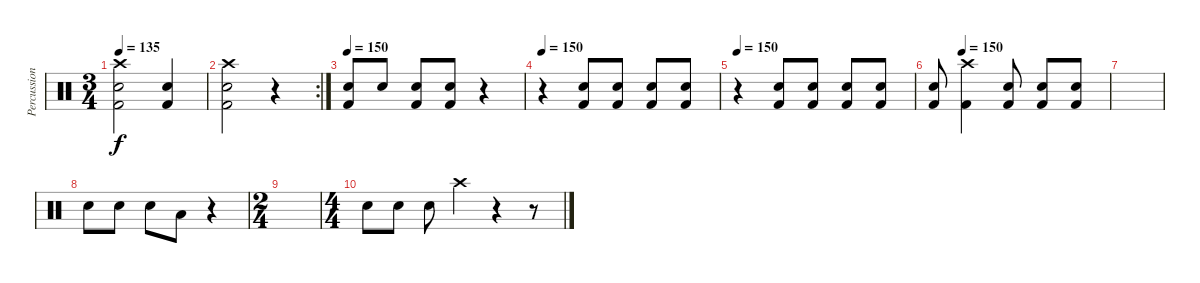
\track ("Percussioni" "Percussion") {instrument percussion}
\staff {score}
\articulation defaults
\ts (3 4)
\tempo 135
\clef neutral
\ks c
("Crash high (hit)" "Kick (hit) 2" "Snare (hit) 2").2{dy f} ("Kick (hit) 2" "Snare (hit) 2").4 |
\rc 2
("Crash high (hit)" "Kick (hit) 2" "Snare (hit) 2").2 r.4 |
\tempo 150
("Snare (hit) 2" "Kick (hit) 2").8 "Snare (hit) 2".8 ("Snare (hit) 2" "Kick (hit) 2").8 ("Snare (hit) 2" "Kick (hit) 2").8 r.4 |
\tempo 150
r.4 ("Snare (hit) 2" "Kick (hit) 2").8 ("Snare (hit) 2" "Kick (hit) 2").8 ("Snare (hit) 2" "Kick (hit) 2").8 ("Kick (hit) 2" "Snare (hit) 2").8 |
\tempo 150
r.4 ("Snare (hit) 2" "Kick (hit) 2").8 ("Snare (hit) 2" "Kick (hit) 2").8 ("Snare (hit) 2" "Kick (hit) 2").8 ("Kick (hit) 2" "Snare (hit) 2").8 |
\tempo (150 0.16666666666666666)
("Snare (hit) 2" "Kick (hit) 2").8 ("Crash high (hit)" "Kick (hit) 2").4 ("Snare (hit) 2" "Kick (hit) 2").8 ("Snare (hit) 2" "Kick (hit) 2").8 ("Snare (hit) 2" "Kick (hit) 2").8 |
|
"Snare (hit) 2".8 "Snare (hit) 2".8 "Snare (hit) 2".8 "Low Tom (hit)".8 r.4 |
\ts (2 4)
|
\ts (4 4)
"Snare (hit) 2".8 "Snare (hit) 2".8 "Snare (hit) 2".8 "Crash high (hit)".4 r.4 r.8
